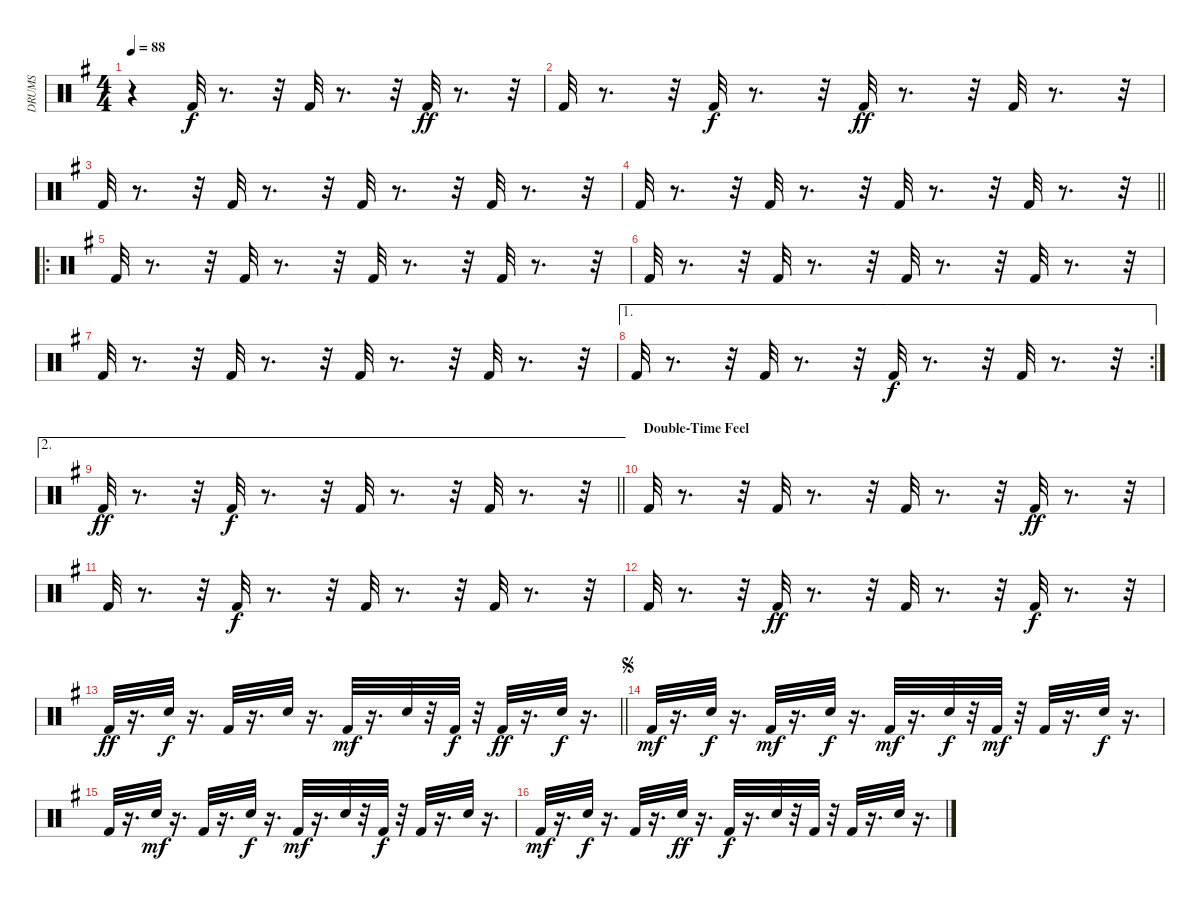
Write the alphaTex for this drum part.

\track ("DRUMS" "DRUMS") {instrument percussion}
\staff {score}
\articulation defaults
\ts (4 4)
\tempo 88
\clef neutral
\ks g
r.4{dy f} "Kick (hit) 2".32 r.8{d} r.32 "Kick (hit) 2".32 r.8{d} r.32 "Kick (hit) 2".32{dy ff} r.8{d} r.32 |
"Kick (hit) 2".32 r.8{d} r.32 "Kick (hit) 2".32{dy f} r.8{d} r.32 "Kick (hit) 2".32{dy ff} r.8{d} r.32 "Kick (hit) 2".32 r.8{d} r.32 |
"Kick (hit) 2".32 r.8{d} r.32 "Kick (hit) 2".32 r.8{d} r.32 "Kick (hit) 2".32 r.8{d} r.32 "Kick (hit) 2".32 r.8{d} r.32 |
\barLineRight lightlight "Kick (hit) 2".32
r.8{d} r.32 "Kick (hit) 2".32 r.8{d} r.32 "Kick (hit) 2".32 r.8{d} r.32 "Kick (hit) 2".32 r.8{d} r.32 |
\ro "Kick (hit) 2".32
r.8{d} r.32 "Kick (hit) 2".32 r.8{d} r.32 "Kick (hit) 2".32 r.8{d} r.32 "Kick (hit) 2".32 r.8{d} r.32 |
"Kick (hit) 2".32 r.8{d} r.32 "Kick (hit) 2".32 r.8{d} r.32 "Kick (hit) 2".32 r.8{d} r.32 "Kick (hit) 2".32 r.8{d} r.32 |
"Kick (hit) 2".32 r.8{d} r.32 "Kick (hit) 2".32 r.8{d} r.32 "Kick (hit) 2".32 r.8{d} r.32 "Kick (hit) 2".32 r.8{d} r.32 |
\ae 1
\rc 2 "Kick (hit) 2".32
r.8{d} r.32 "Kick (hit) 2".32 r.8{d} r.32 "Kick (hit) 2".32{dy f} r.8{d} r.32 "Kick (hit) 2".32 r.8{d} r.32 |
\ae 2
\barLineRight lightlight "Kick (hit) 2".32{dy ff}
r.8{d} r.32 "Kick (hit) 2".32{dy f} r.8{d} r.32 "Kick (hit) 2".32 r.8{d} r.32 "Kick (hit) 2".32 r.8{d} r.32 |
\section ("" "Double-Time Feel")
"Kick (hit) 2".32 r.8{d} r.32 "Kick (hit) 2".32 r.8{d} r.32 "Kick (hit) 2".32 r.8{d} r.32 "Kick (hit) 2".32{dy ff} r.8{d} r.32 |
"Kick (hit) 2".32 r.8{d} r.32 "Kick (hit) 2".32{dy f} r.8{d} r.32 "Kick (hit) 2".32 r.8{d} r.32 "Kick (hit) 2".32 r.8{d} r.32 |
"Kick (hit) 2".32 r.8{d} r.32 "Kick (hit) 2".32{dy ff} r.8{d} r.32 "Kick (hit) 2".32 r.8{d} r.32 "Kick (hit) 2".32{dy f} r.8{d} r.32 |
\barLineRight lightlight "Kick (hit) 2".32{dy ff}
r.16{d} "Electric Snare (hit)".32{dy f} r.16{d} "Kick (hit) 2".32 r.16{d} "Electric Snare (hit)".32 r.16{d} "Kick (hit) 2".32{dy mf} r.16{d} "Electric Snare (hit)".32 r.32 "Kick (hit) 2".32{dy f} r.32 "Kick (hit) 2".32{dy ff} r.16{d} "Electric Snare (hit)".32{dy f} r.16{d} |
\jump segno "Kick (hit) 2".32{dy mf}
r.16{d} "Electric Snare (hit)".32{dy f} r.16{d} "Kick (hit) 2".32{dy mf} r.16{d} "Electric Snare (hit)".32{dy f} r.16{d} "Kick (hit) 2".32{dy mf} r.16{d} "Electric Snare (hit)".32{dy f} r.32 "Kick (hit) 2".32{dy mf} r.32 "Kick (hit) 2".32 r.16{d} "Electric Snare (hit)".32{dy f} r.16{d} |
"Kick (hit) 2".32 r.16{d} "Electric Snare (hit)".32{dy mf} r.16{d} "Kick (hit) 2".32 r.16{d} "Electric Snare (hit)".32{dy f} r.16{d} "Kick (hit) 2".32{dy mf} r.16{d} "Electric Snare (hit)".32 r.32 "Kick (hit) 2".32{dy f} r.32 "Kick (hit) 2".32 r.16{d} "Electric Snare (hit)".32 r.16{d} |
"Kick (hit) 2".32{dy mf} r.16{d} "Electric Snare (hit)".32{dy f} r.16{d} "Kick (hit) 2".32 r.16{d} "Electric Snare (hit)".32{dy ff} r.16{d} "Kick (hit) 2".32{dy f} r.16{d} "Electric Snare (hit)".32 r.32 "Kick (hit) 2".32 r.32 "Kick (hit) 2".32 r.16{d} "Electric Snare (hit)".32 r.16{d}
